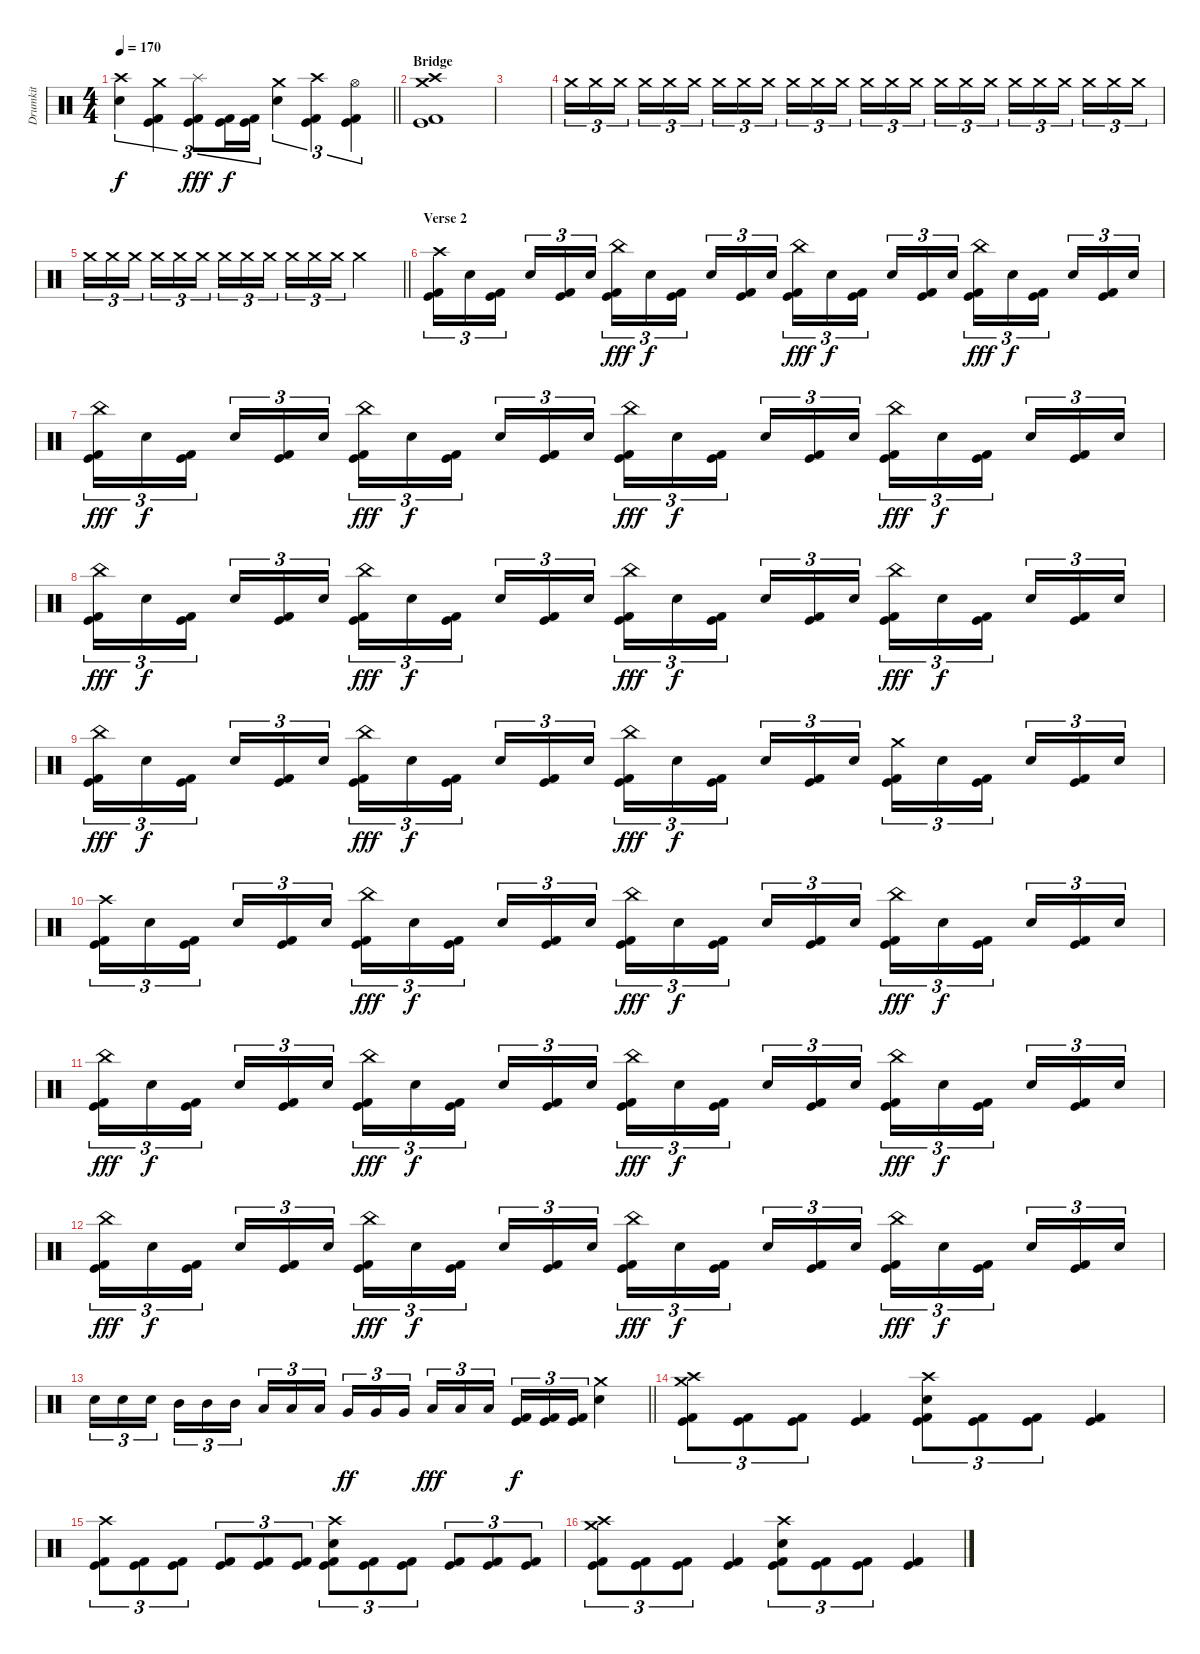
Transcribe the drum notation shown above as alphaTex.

\track ("Drumkit" "Drumkit") {instrument percussion}
\staff {score}
\articulation defaults
\ts (4 4)
\tempo 170
\clef neutral
\barLineRight lightlight
\ks c
("Crash high (hit)" "Electric Snare (hit)").4{tu (3 2) dy f} ("Crash medium (hit)" "Kick (hit)" "Kick (hit) 2").4{tu (3 2)} ("Splash (hit)" "Kick (hit)" "Kick (hit) 2").8{tu (3 2) dy fff} ("Kick (hit)" "Kick (hit) 2").16{tu (3 2) dy f} ("Kick (hit)" "Kick (hit) 2").16{tu (3 2)} ("Crash medium (hit)" "Electric Snare (hit)").4{tu (3 2)} ("Crash high (hit)" "Kick (hit)" "Kick (hit) 2").4{tu (3 2)} ("Hi-Hat (open)" "Kick (hit)" "Kick (hit) 2").4{tu (3 2)} |
\section ("" "Bridge")
("Crash high (hit)" "Crash medium (hit)" "Kick (hit)" "Kick (hit) 2").1 |
|
"Crash medium (hit)".16{tu (3 2) volume 14} "Crash medium (hit)".16{tu (3 2)} "Crash medium (hit)".16{tu (3 2) beam splitsecondary} "Crash medium (hit)".16{tu (3 2)} "Crash medium (hit)".16{tu (3 2)} "Crash medium (hit)".16{tu (3 2)} "Crash medium (hit)".16{tu (3 2)} "Crash medium (hit)".16{tu (3 2)} "Crash medium (hit)".16{tu (3 2) beam splitsecondary} "Crash medium (hit)".16{tu (3 2)} "Crash medium (hit)".16{tu (3 2)} "Crash medium (hit)".16{tu (3 2)} "Crash medium (hit)".16{tu (3 2)} "Crash medium (hit)".16{tu (3 2)} "Crash medium (hit)".16{tu (3 2) beam splitsecondary} "Crash medium (hit)".16{tu (3 2)} "Crash medium (hit)".16{tu (3 2)} "Crash medium (hit)".16{tu (3 2)} "Crash medium (hit)".16{tu (3 2)} "Crash medium (hit)".16{tu (3 2)} "Crash medium (hit)".16{tu (3 2) beam splitsecondary} "Crash medium (hit)".16{tu (3 2)} "Crash medium (hit)".16{tu (3 2)} "Crash medium (hit)".16{tu (3 2)} |
\barLineRight lightlight "Crash medium (hit)".16{tu (3 2)} "Crash medium (hit)".16{tu (3 2)} "Crash medium (hit)".16{tu (3 2) beam splitsecondary} "Crash medium (hit)".16{tu (3 2)} "Crash medium (hit)".16{tu (3 2)} "Crash medium (hit)".16{tu (3 2)} "Crash medium (hit)".16{tu (3 2)} "Crash medium (hit)".16{tu (3 2)} "Crash medium (hit)".16{tu (3 2) beam splitsecondary} "Crash medium (hit)".16{tu (3 2)} "Crash medium (hit)".16{tu (3 2)} "Crash medium (hit)".16{tu (3 2)} "Crash medium (hit)".2
|
\section ("" "Verse 2")
("Crash high (hit)" "Kick (hit)" "Kick (hit) 2").16{tu (3 2)} "Electric Snare (hit)".16{tu (3 2)} ("Kick (hit)" "Kick (hit) 2").16{tu (3 2) beam splitsecondary} "Electric Snare (hit)".16{tu (3 2)} ("Kick (hit)" "Kick (hit) 2").16{tu (3 2)} "Electric Snare (hit)".16{tu (3 2)} ("China (hit)" "Kick (hit)" "Kick (hit) 2").16{tu (3 2) dy fff} "Electric Snare (hit)".16{tu (3 2) dy f} ("Kick (hit)" "Kick (hit) 2").16{tu (3 2) beam splitsecondary} "Electric Snare (hit)".16{tu (3 2)} ("Kick (hit)" "Kick (hit) 2").16{tu (3 2)} "Electric Snare (hit)".16{tu (3 2)} ("China (hit)" "Kick (hit)" "Kick (hit) 2").16{tu (3 2) dy fff} "Electric Snare (hit)".16{tu (3 2) dy f} ("Kick (hit)" "Kick (hit) 2").16{tu (3 2) beam splitsecondary} "Electric Snare (hit)".16{tu (3 2)} ("Kick (hit)" "Kick (hit) 2").16{tu (3 2)} "Electric Snare (hit)".16{tu (3 2)} ("China (hit)" "Kick (hit)" "Kick (hit) 2").16{tu (3 2) dy fff} "Electric Snare (hit)".16{tu (3 2) dy f} ("Kick (hit)" "Kick (hit) 2").16{tu (3 2) beam splitsecondary} "Electric Snare (hit)".16{tu (3 2)} ("Kick (hit)" "Kick (hit) 2").16{tu (3 2)} "Electric Snare (hit)".16{tu (3 2)} |
("China (hit)" "Kick (hit)" "Kick (hit) 2").16{tu (3 2) dy fff} "Electric Snare (hit)".16{tu (3 2) dy f} ("Kick (hit)" "Kick (hit) 2").16{tu (3 2) beam splitsecondary} "Electric Snare (hit)".16{tu (3 2)} ("Kick (hit)" "Kick (hit) 2").16{tu (3 2)} "Electric Snare (hit)".16{tu (3 2)} ("China (hit)" "Kick (hit)" "Kick (hit) 2").16{tu (3 2) dy fff} "Electric Snare (hit)".16{tu (3 2) dy f} ("Kick (hit)" "Kick (hit) 2").16{tu (3 2) beam splitsecondary} "Electric Snare (hit)".16{tu (3 2)} ("Kick (hit)" "Kick (hit) 2").16{tu (3 2)} "Electric Snare (hit)".16{tu (3 2)} ("China (hit)" "Kick (hit)" "Kick (hit) 2").16{tu (3 2) dy fff} "Electric Snare (hit)".16{tu (3 2) dy f} ("Kick (hit)" "Kick (hit) 2").16{tu (3 2) beam splitsecondary} "Electric Snare (hit)".16{tu (3 2)} ("Kick (hit)" "Kick (hit) 2").16{tu (3 2)} "Electric Snare (hit)".16{tu (3 2)} ("China (hit)" "Kick (hit)" "Kick (hit) 2").16{tu (3 2) dy fff} "Electric Snare (hit)".16{tu (3 2) dy f} ("Kick (hit)" "Kick (hit) 2").16{tu (3 2) beam splitsecondary} "Electric Snare (hit)".16{tu (3 2)} ("Kick (hit)" "Kick (hit) 2").16{tu (3 2)} "Electric Snare (hit)".16{tu (3 2)} |
("China (hit)" "Kick (hit)" "Kick (hit) 2").16{tu (3 2) dy fff} "Electric Snare (hit)".16{tu (3 2) dy f} ("Kick (hit)" "Kick (hit) 2").16{tu (3 2) beam splitsecondary} "Electric Snare (hit)".16{tu (3 2)} ("Kick (hit)" "Kick (hit) 2").16{tu (3 2)} "Electric Snare (hit)".16{tu (3 2)} ("China (hit)" "Kick (hit)" "Kick (hit) 2").16{tu (3 2) dy fff} "Electric Snare (hit)".16{tu (3 2) dy f} ("Kick (hit)" "Kick (hit) 2").16{tu (3 2) beam splitsecondary} "Electric Snare (hit)".16{tu (3 2)} ("Kick (hit)" "Kick (hit) 2").16{tu (3 2)} "Electric Snare (hit)".16{tu (3 2)} ("China (hit)" "Kick (hit)" "Kick (hit) 2").16{tu (3 2) dy fff} "Electric Snare (hit)".16{tu (3 2) dy f} ("Kick (hit)" "Kick (hit) 2").16{tu (3 2) beam splitsecondary} "Electric Snare (hit)".16{tu (3 2)} ("Kick (hit)" "Kick (hit) 2").16{tu (3 2)} "Electric Snare (hit)".16{tu (3 2)} ("China (hit)" "Kick (hit)" "Kick (hit) 2").16{tu (3 2) dy fff} "Electric Snare (hit)".16{tu (3 2) dy f} ("Kick (hit)" "Kick (hit) 2").16{tu (3 2) beam splitsecondary} "Electric Snare (hit)".16{tu (3 2)} ("Kick (hit)" "Kick (hit) 2").16{tu (3 2)} "Electric Snare (hit)".16{tu (3 2)} |
("China (hit)" "Kick (hit)" "Kick (hit) 2").16{tu (3 2) dy fff} "Electric Snare (hit)".16{tu (3 2) dy f} ("Kick (hit)" "Kick (hit) 2").16{tu (3 2) beam splitsecondary} "Electric Snare (hit)".16{tu (3 2)} ("Kick (hit)" "Kick (hit) 2").16{tu (3 2)} "Electric Snare (hit)".16{tu (3 2)} ("China (hit)" "Kick (hit)" "Kick (hit) 2").16{tu (3 2) dy fff} "Electric Snare (hit)".16{tu (3 2) dy f} ("Kick (hit)" "Kick (hit) 2").16{tu (3 2) beam splitsecondary} "Electric Snare (hit)".16{tu (3 2)} ("Kick (hit)" "Kick (hit) 2").16{tu (3 2)} "Electric Snare (hit)".16{tu (3 2)} ("China (hit)" "Kick (hit)" "Kick (hit) 2").16{tu (3 2) dy fff} "Electric Snare (hit)".16{tu (3 2) dy f} ("Kick (hit)" "Kick (hit) 2").16{tu (3 2) beam splitsecondary} "Electric Snare (hit)".16{tu (3 2)} ("Kick (hit)" "Kick (hit) 2").16{tu (3 2)} "Electric Snare (hit)".16{tu (3 2)} ("Crash medium (hit)" "Kick (hit)" "Kick (hit) 2").16{tu (3 2)} "Electric Snare (hit)".16{tu (3 2)} ("Kick (hit)" "Kick (hit) 2").16{tu (3 2) beam splitsecondary} "Electric Snare (hit)".16{tu (3 2)} ("Kick (hit)" "Kick (hit) 2").16{tu (3 2)} "Electric Snare (hit)".16{tu (3 2)} |
("Crash high (hit)" "Kick (hit)" "Kick (hit) 2").16{tu (3 2)} "Electric Snare (hit)".16{tu (3 2)} ("Kick (hit)" "Kick (hit) 2").16{tu (3 2) beam splitsecondary} "Electric Snare (hit)".16{tu (3 2)} ("Kick (hit)" "Kick (hit) 2").16{tu (3 2)} "Electric Snare (hit)".16{tu (3 2)} ("China (hit)" "Kick (hit)" "Kick (hit) 2").16{tu (3 2) dy fff} "Electric Snare (hit)".16{tu (3 2) dy f} ("Kick (hit)" "Kick (hit) 2").16{tu (3 2) beam splitsecondary} "Electric Snare (hit)".16{tu (3 2)} ("Kick (hit)" "Kick (hit) 2").16{tu (3 2)} "Electric Snare (hit)".16{tu (3 2)} ("China (hit)" "Kick (hit)" "Kick (hit) 2").16{tu (3 2) dy fff} "Electric Snare (hit)".16{tu (3 2) dy f} ("Kick (hit)" "Kick (hit) 2").16{tu (3 2) beam splitsecondary} "Electric Snare (hit)".16{tu (3 2)} ("Kick (hit)" "Kick (hit) 2").16{tu (3 2)} "Electric Snare (hit)".16{tu (3 2)} ("China (hit)" "Kick (hit)" "Kick (hit) 2").16{tu (3 2) dy fff} "Electric Snare (hit)".16{tu (3 2) dy f} ("Kick (hit)" "Kick (hit) 2").16{tu (3 2) beam splitsecondary} "Electric Snare (hit)".16{tu (3 2)} ("Kick (hit)" "Kick (hit) 2").16{tu (3 2)} "Electric Snare (hit)".16{tu (3 2)} |
("China (hit)" "Kick (hit)" "Kick (hit) 2").16{tu (3 2) dy fff} "Electric Snare (hit)".16{tu (3 2) dy f} ("Kick (hit)" "Kick (hit) 2").16{tu (3 2) beam splitsecondary} "Electric Snare (hit)".16{tu (3 2)} ("Kick (hit)" "Kick (hit) 2").16{tu (3 2)} "Electric Snare (hit)".16{tu (3 2)} ("China (hit)" "Kick (hit)" "Kick (hit) 2").16{tu (3 2) dy fff} "Electric Snare (hit)".16{tu (3 2) dy f} ("Kick (hit)" "Kick (hit) 2").16{tu (3 2) beam splitsecondary} "Electric Snare (hit)".16{tu (3 2)} ("Kick (hit)" "Kick (hit) 2").16{tu (3 2)} "Electric Snare (hit)".16{tu (3 2)} ("China (hit)" "Kick (hit)" "Kick (hit) 2").16{tu (3 2) dy fff} "Electric Snare (hit)".16{tu (3 2) dy f} ("Kick (hit)" "Kick (hit) 2").16{tu (3 2) beam splitsecondary} "Electric Snare (hit)".16{tu (3 2)} ("Kick (hit)" "Kick (hit) 2").16{tu (3 2)} "Electric Snare (hit)".16{tu (3 2)} ("China (hit)" "Kick (hit)" "Kick (hit) 2").16{tu (3 2) dy fff} "Electric Snare (hit)".16{tu (3 2) dy f} ("Kick (hit)" "Kick (hit) 2").16{tu (3 2) beam splitsecondary} "Electric Snare (hit)".16{tu (3 2)} ("Kick (hit)" "Kick (hit) 2").16{tu (3 2)} "Electric Snare (hit)".16{tu (3 2)} |
("China (hit)" "Kick (hit)" "Kick (hit) 2").16{tu (3 2) dy fff} "Electric Snare (hit)".16{tu (3 2) dy f} ("Kick (hit)" "Kick (hit) 2").16{tu (3 2) beam splitsecondary} "Electric Snare (hit)".16{tu (3 2)} ("Kick (hit)" "Kick (hit) 2").16{tu (3 2)} "Electric Snare (hit)".16{tu (3 2)} ("China (hit)" "Kick (hit)" "Kick (hit) 2").16{tu (3 2) dy fff} "Electric Snare (hit)".16{tu (3 2) dy f} ("Kick (hit)" "Kick (hit) 2").16{tu (3 2) beam splitsecondary} "Electric Snare (hit)".16{tu (3 2)} ("Kick (hit)" "Kick (hit) 2").16{tu (3 2)} "Electric Snare (hit)".16{tu (3 2)} ("China (hit)" "Kick (hit)" "Kick (hit) 2").16{tu (3 2) dy fff} "Electric Snare (hit)".16{tu (3 2) dy f} ("Kick (hit)" "Kick (hit) 2").16{tu (3 2) beam splitsecondary} "Electric Snare (hit)".16{tu (3 2)} ("Kick (hit)" "Kick (hit) 2").16{tu (3 2)} "Electric Snare (hit)".16{tu (3 2)} ("China (hit)" "Kick (hit)" "Kick (hit) 2").16{tu (3 2) dy fff} "Electric Snare (hit)".16{tu (3 2) dy f} ("Kick (hit)" "Kick (hit) 2").16{tu (3 2) beam splitsecondary} "Electric Snare (hit)".16{tu (3 2)} ("Kick (hit)" "Kick (hit) 2").16{tu (3 2)} "Electric Snare (hit)".16{tu (3 2)} |
\barLineRight lightlight "Electric Snare (hit)".16{tu (3 2)} "Electric Snare (hit)".16{tu (3 2)} "Electric Snare (hit)".16{tu (3 2) beam splitsecondary} "Mid Tom (hit)".16{tu (3 2)} "Mid Tom (hit)".16{tu (3 2)} "Mid Tom (hit)".16{tu (3 2)} "Low Tom (hit)".16{tu (3 2)} "Low Tom (hit)".16{tu (3 2)} "Low Tom (hit)".16{tu (3 2) beam splitsecondary} "Very Low Tom (hit)".16{tu (3 2) dy ff} "Very Low Tom (hit)".16{tu (3 2)} "Very Low Tom (hit)".16{tu (3 2)} "Low Floor Tom (hit)".16{tu (3 2) dy fff} "Low Floor Tom (hit)".16{tu (3 2)} "Low Floor Tom (hit)".16{tu (3 2) beam splitsecondary}
("Kick (hit)" "Kick (hit) 2").16{tu (3 2) dy f} ("Kick (hit)" "Kick (hit) 2").16{tu (3 2)} ("Kick (hit)" "Kick (hit) 2").16{tu (3 2)} ("Crash medium (hit)" "Electric Snare (hit)").4 |
("Crash high (hit)" "Crash medium (hit)" "Kick (hit)" "Kick (hit) 2").8{tu (3 2)} ("Kick (hit)" "Kick (hit) 2").8{tu (3 2)} ("Kick (hit)" "Kick (hit) 2").8{tu (3 2)} ("Kick (hit)" "Kick (hit) 2").4 ("Crash high (hit)" "Electric Snare (hit)" "Kick (hit)" "Kick (hit) 2").8{tu (3 2)} ("Kick (hit)" "Kick (hit) 2").8{tu (3 2)} ("Kick (hit)" "Kick (hit) 2").8{tu (3 2)} ("Kick (hit)" "Kick (hit) 2").4 |
("Crash high (hit)" "Kick (hit)" "Kick (hit) 2").8{tu (3 2)} ("Kick (hit)" "Kick (hit) 2").8{tu (3 2)} ("Kick (hit)" "Kick (hit) 2").8{tu (3 2)} ("Kick (hit)" "Kick (hit) 2").8{tu (3 2)} ("Kick (hit)" "Kick (hit) 2").8{tu (3 2)} ("Kick (hit)" "Kick (hit) 2").8{tu (3 2)} ("Crash high (hit)" "Electric Snare (hit)" "Kick (hit)" "Kick (hit) 2").8{tu (3 2)} ("Kick (hit)" "Kick (hit) 2").8{tu (3 2)} ("Kick (hit)" "Kick (hit) 2").8{tu (3 2)} ("Kick (hit)" "Kick (hit) 2").8{tu (3 2)} ("Kick (hit)" "Kick (hit) 2").8{tu (3 2)} ("Kick (hit)" "Kick (hit) 2").8{tu (3 2)} |
("Crash high (hit)" "Crash medium (hit)" "Kick (hit)" "Kick (hit) 2").8{tu (3 2)} ("Kick (hit)" "Kick (hit) 2").8{tu (3 2)} ("Kick (hit)" "Kick (hit) 2").8{tu (3 2)} ("Kick (hit)" "Kick (hit) 2").4 ("Crash high (hit)" "Electric Snare (hit)" "Kick (hit)" "Kick (hit) 2").8{tu (3 2)} ("Kick (hit)" "Kick (hit) 2").8{tu (3 2)} ("Kick (hit)" "Kick (hit) 2").8{tu (3 2)} ("Kick (hit)" "Kick (hit) 2").4
